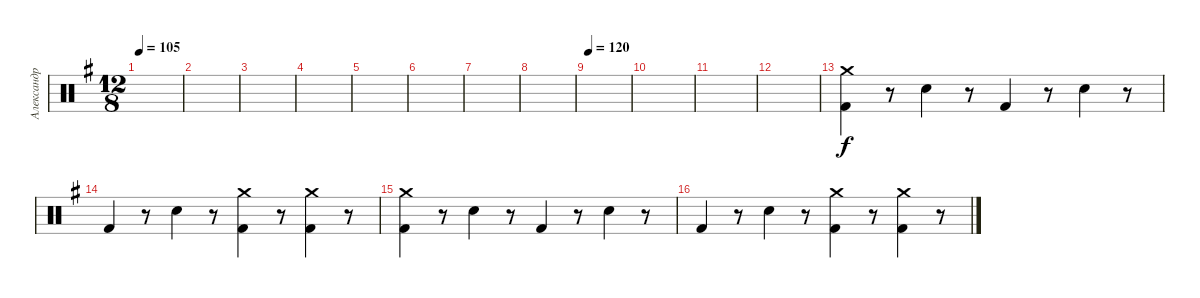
\track ("Александр Манякин" "Александр ") {instrument percussion}
\staff {score}
\articulation defaults
\ts (12 8)
\tempo 105
\clef neutral
\ks g
|
|
|
|
|
|
|
|
\tempo 120
|
|
|
|
("Kick (hit) 2" "Crash medium (hit)").4 r.8 "Snare (hit) 2".4 r.8 "Kick (hit) 2".4 r.8 "Snare (hit) 2".4 r.8 |
"Kick (hit) 2".4 r.8 "Snare (hit) 2".4 r.8 ("Kick (hit) 2" "Crash medium (hit)").4 r.8 ("Kick (hit) 2" "Crash medium (hit)").4 r.8 |
("Kick (hit) 2" "Crash medium (hit)").4 r.8 "Snare (hit) 2".4 r.8 "Kick (hit) 2".4 r.8 "Snare (hit) 2".4 r.8 |
"Kick (hit) 2".4 r.8 "Snare (hit) 2".4 r.8 ("Kick (hit) 2" "Crash medium (hit)").4 r.8 ("Kick (hit) 2" "Crash medium (hit)").4 r.8
